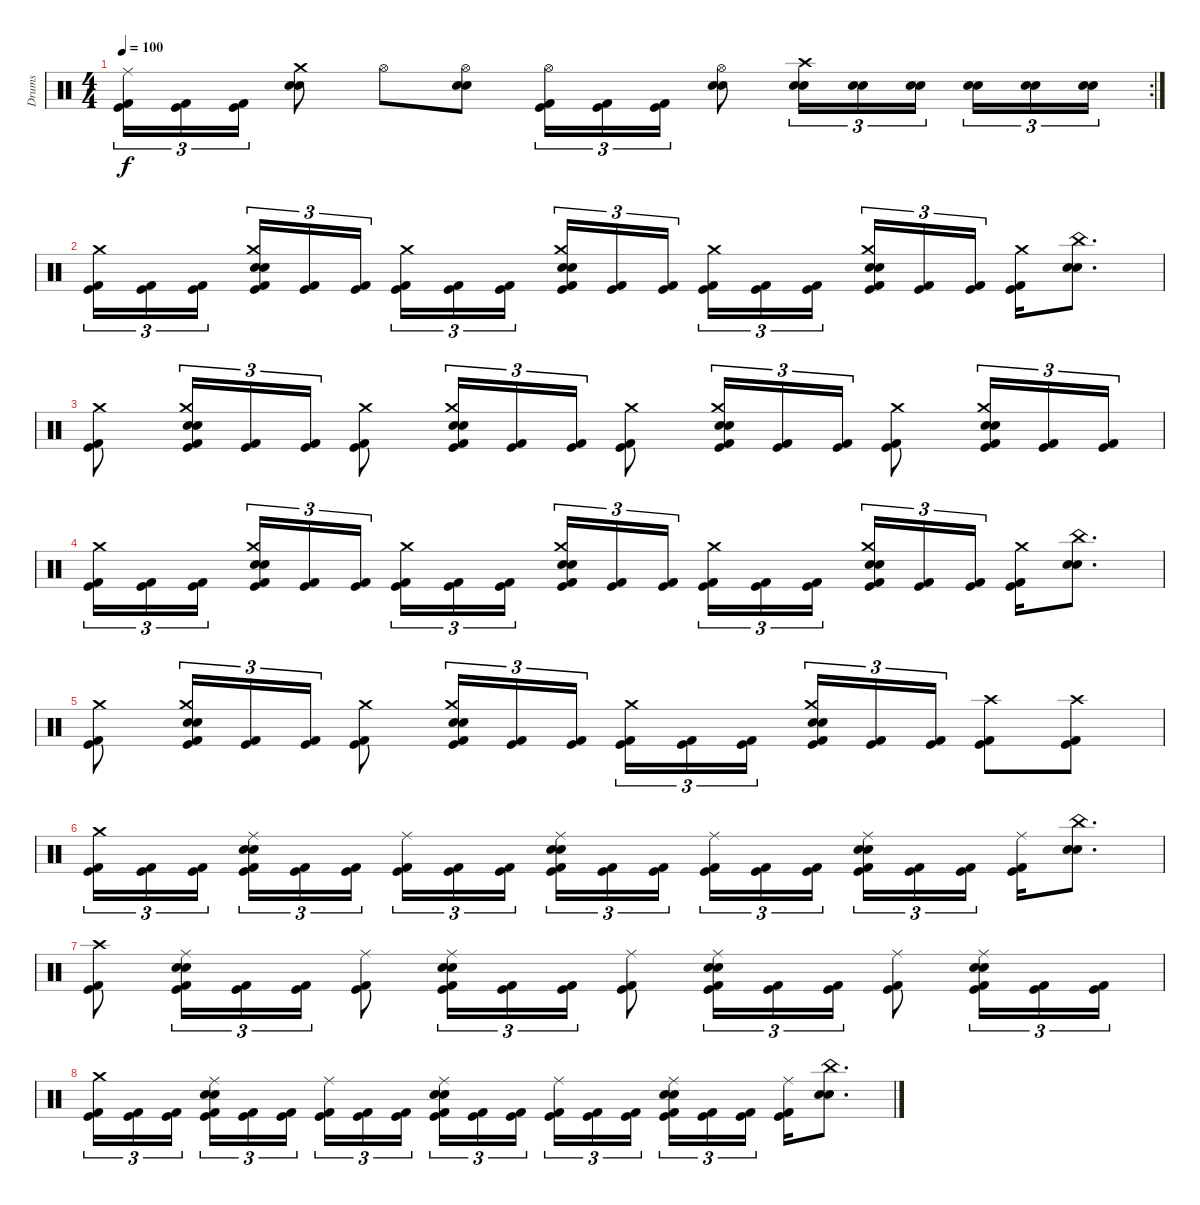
\track ("Drums" "Drums") {instrument percussion}
\staff {score}
\articulation defaults
\rc 2
\ts (4 4)
\tempo 100
\clef neutral
\ks c
("Ride (middle)" "Kick (hit)" "Kick (hit) 2").16{tu (3 2) dy f} ("Kick (hit)" "Kick (hit) 2").16{tu (3 2)} ("Kick (hit)" "Kick (hit) 2").16{tu (3 2)} ("Crash medium (hit)" "Electric Snare (hit)" "Snare (hit) 2").8 "Hi-Hat (open)".8 ("Hi-Hat (open)" "Electric Snare (hit)" "Snare (hit) 2").8 ("Hi-Hat (open)" "Kick (hit)" "Kick (hit) 2").16{tu (3 2)} ("Kick (hit)" "Kick (hit) 2").16{tu (3 2)} ("Kick (hit)" "Kick (hit) 2").16{tu (3 2)} ("Hi-Hat (open)" "Electric Snare (hit)" "Snare (hit) 2").8 ("Crash high (hit)" "Electric Snare (hit)" "Snare (hit) 2").16{tu (3 2)} ("Electric Snare (hit)" "Snare (hit) 2").16{tu (3 2)} ("Electric Snare (hit)" "Snare (hit) 2").16{tu (3 2) beam splitsecondary} ("Electric Snare (hit)" "Snare (hit) 2").16{tu (3 2)} ("Electric Snare (hit)" "Snare (hit) 2").16{tu (3 2)} ("Electric Snare (hit)" "Snare (hit) 2").16{tu (3 2)} |
("Crash medium (hit)" "Kick (hit)" "Kick (hit) 2").16{tu (3 2)} ("Kick (hit)" "Kick (hit) 2").16{tu (3 2)} ("Kick (hit)" "Kick (hit) 2").16{tu (3 2) beam splitsecondary} ("Crash medium (hit)" "Electric Snare (hit)" "Snare (hit) 2" "Kick (hit)" "Kick (hit) 2").16{tu (3 2)} ("Kick (hit)" "Kick (hit) 2").16{tu (3 2)} ("Kick (hit)" "Kick (hit) 2").16{tu (3 2)} ("Crash medium (hit)" "Kick (hit)" "Kick (hit) 2").16{tu (3 2)} ("Kick (hit)" "Kick (hit) 2").16{tu (3 2)} ("Kick (hit)" "Kick (hit) 2").16{tu (3 2) beam splitsecondary} ("Crash medium (hit)" "Snare (hit) 2" "Electric Snare (hit)" "Kick (hit)" "Kick (hit) 2").16{tu (3 2)} ("Kick (hit)" "Kick (hit) 2").16{tu (3 2)} ("Kick (hit)" "Kick (hit) 2").16{tu (3 2)} ("Crash medium (hit)" "Kick (hit)" "Kick (hit) 2").16{tu (3 2)} ("Kick (hit)" "Kick (hit) 2").16{tu (3 2)} ("Kick (hit)" "Kick (hit) 2").16{tu (3 2) beam splitsecondary} ("Crash medium (hit)" "Electric Snare (hit)" "Snare (hit) 2" "Kick (hit)" "Kick (hit) 2").16{tu (3 2)} ("Kick (hit)" "Kick (hit) 2").16{tu (3 2)} ("Kick (hit)" "Kick (hit) 2").16{tu (3 2)} ("Crash medium (hit)" "Kick (hit)" "Kick (hit) 2").16 ("China (hit)" "Snare (hit) 2" "Electric Snare (hit)").8{d} |
("Crash medium (hit)" "Kick (hit)" "Kick (hit) 2").8 ("Crash medium (hit)" "Snare (hit) 2" "Electric Snare (hit)" "Kick (hit) 2" "Kick (hit)").16{tu (3 2)} ("Kick (hit) 2" "Kick (hit)").16{tu (3 2)} ("Kick (hit) 2" "Kick (hit)").16{tu (3 2)} ("Crash medium (hit)" "Kick (hit)" "Kick (hit) 2").8 ("Crash medium (hit)" "Electric Snare (hit)" "Snare (hit) 2" "Kick (hit)" "Kick (hit) 2").16{tu (3 2)} ("Kick (hit)" "Kick (hit) 2").16{tu (3 2)} ("Kick (hit)" "Kick (hit) 2").16{tu (3 2)} ("Crash medium (hit)" "Kick (hit)" "Kick (hit) 2").8 ("Crash medium (hit)" "Electric Snare (hit)" "Snare (hit) 2" "Kick (hit)" "Kick (hit) 2").16{tu (3 2)} ("Kick (hit)" "Kick (hit) 2").16{tu (3 2)} ("Kick (hit)" "Kick (hit) 2").16{tu (3 2)} ("Crash medium (hit)" "Kick (hit)" "Kick (hit) 2").8 ("Crash medium (hit)" "Electric Snare (hit)" "Snare (hit) 2" "Kick (hit)" "Kick (hit) 2").16{tu (3 2)} ("Kick (hit)" "Kick (hit) 2").16{tu (3 2)} ("Kick (hit)" "Kick (hit) 2").16{tu (3 2)} |
("Crash medium (hit)" "Kick (hit)" "Kick (hit) 2").16{tu (3 2)} ("Kick (hit)" "Kick (hit) 2").16{tu (3 2)} ("Kick (hit)" "Kick (hit) 2").16{tu (3 2) beam splitsecondary} ("Crash medium (hit)" "Electric Snare (hit)" "Snare (hit) 2" "Kick (hit)" "Kick (hit) 2").16{tu (3 2)} ("Kick (hit)" "Kick (hit) 2").16{tu (3 2)} ("Kick (hit)" "Kick (hit) 2").16{tu (3 2)} ("Crash medium (hit)" "Kick (hit)" "Kick (hit) 2").16{tu (3 2)} ("Kick (hit)" "Kick (hit) 2").16{tu (3 2)} ("Kick (hit)" "Kick (hit) 2").16{tu (3 2) beam splitsecondary} ("Crash medium (hit)" "Snare (hit) 2" "Electric Snare (hit)" "Kick (hit)" "Kick (hit) 2").16{tu (3 2)} ("Kick (hit)" "Kick (hit) 2").16{tu (3 2)} ("Kick (hit)" "Kick (hit) 2").16{tu (3 2)} ("Crash medium (hit)" "Kick (hit)" "Kick (hit) 2").16{tu (3 2)} ("Kick (hit)" "Kick (hit) 2").16{tu (3 2)} ("Kick (hit)" "Kick (hit) 2").16{tu (3 2) beam splitsecondary} ("Crash medium (hit)" "Electric Snare (hit)" "Snare (hit) 2" "Kick (hit)" "Kick (hit) 2").16{tu (3 2)} ("Kick (hit)" "Kick (hit) 2").16{tu (3 2)} ("Kick (hit)" "Kick (hit) 2").16{tu (3 2)} ("Crash medium (hit)" "Kick (hit)" "Kick (hit) 2").16 ("China (hit)" "Snare (hit) 2" "Electric Snare (hit)").8{d} |
("Crash medium (hit)" "Kick (hit)" "Kick (hit) 2").8 ("Crash medium (hit)" "Snare (hit) 2" "Electric Snare (hit)" "Kick (hit) 2" "Kick (hit)").16{tu (3 2)} ("Kick (hit) 2" "Kick (hit)").16{tu (3 2)} ("Kick (hit) 2" "Kick (hit)").16{tu (3 2)} ("Crash medium (hit)" "Kick (hit)" "Kick (hit) 2").8 ("Crash medium (hit)" "Electric Snare (hit)" "Snare (hit) 2" "Kick (hit)" "Kick (hit) 2").16{tu (3 2)} ("Kick (hit)" "Kick (hit) 2").16{tu (3 2)} ("Kick (hit)" "Kick (hit) 2").16{tu (3 2)} ("Crash medium (hit)" "Kick (hit)" "Kick (hit) 2").16{tu (3 2)} ("Kick (hit)" "Kick (hit) 2").16{tu (3 2)} ("Kick (hit)" "Kick (hit) 2").16{tu (3 2) beam splitsecondary} ("Crash medium (hit)" "Electric Snare (hit)" "Snare (hit) 2" "Kick (hit)" "Kick (hit) 2").16{tu (3 2)} ("Kick (hit)" "Kick (hit) 2").16{tu (3 2)} ("Kick (hit)" "Kick (hit) 2").16{tu (3 2)} ("Crash high (hit)" "Kick (hit)" "Kick (hit) 2").8 ("Crash high (hit)" "Kick (hit)" "Kick (hit) 2").8 |
("Crash medium (hit)" "Kick (hit)" "Kick (hit) 2").16{tu (3 2)} ("Kick (hit)" "Kick (hit) 2").16{tu (3 2)} ("Kick (hit)" "Kick (hit) 2").16{tu (3 2) beam splitsecondary} ("Ride (middle)" "Electric Snare (hit)" "Snare (hit) 2" "Kick (hit)" "Kick (hit) 2").16{tu (3 2)} ("Kick (hit)" "Kick (hit) 2").16{tu (3 2)} ("Kick (hit)" "Kick (hit) 2").16{tu (3 2)} ("Ride (middle)" "Kick (hit)" "Kick (hit) 2").16{tu (3 2)} ("Kick (hit)" "Kick (hit) 2").16{tu (3 2)} ("Kick (hit)" "Kick (hit) 2").16{tu (3 2) beam splitsecondary} ("Ride (middle)" "Snare (hit) 2" "Electric Snare (hit)" "Kick (hit)" "Kick (hit) 2").16{tu (3 2)} ("Kick (hit)" "Kick (hit) 2").16{tu (3 2)} ("Kick (hit)" "Kick (hit) 2").16{tu (3 2)} ("Ride (middle)" "Kick (hit)" "Kick (hit) 2").16{tu (3 2)} ("Kick (hit)" "Kick (hit) 2").16{tu (3 2)} ("Kick (hit)" "Kick (hit) 2").16{tu (3 2) beam splitsecondary} ("Ride (middle)" "Electric Snare (hit)" "Snare (hit) 2" "Kick (hit)" "Kick (hit) 2").16{tu (3 2)} ("Kick (hit)" "Kick (hit) 2").16{tu (3 2)} ("Kick (hit)" "Kick (hit) 2").16{tu (3 2)} ("Ride (middle)" "Kick (hit)" "Kick (hit) 2").16 ("China (hit)" "Snare (hit) 2" "Electric Snare (hit)").8{d} |
("Crash high (hit)" "Kick (hit)" "Kick (hit) 2").8 ("Ride (middle)" "Snare (hit) 2" "Electric Snare (hit)" "Kick (hit) 2" "Kick (hit)").16{tu (3 2)} ("Kick (hit) 2" "Kick (hit)").16{tu (3 2)} ("Kick (hit) 2" "Kick (hit)").16{tu (3 2)} ("Ride (middle)" "Kick (hit)" "Kick (hit) 2").8 ("Ride (middle)" "Electric Snare (hit)" "Snare (hit) 2" "Kick (hit)" "Kick (hit) 2").16{tu (3 2)} ("Kick (hit)" "Kick (hit) 2").16{tu (3 2)} ("Kick (hit)" "Kick (hit) 2").16{tu (3 2)} ("Ride (middle)" "Kick (hit)" "Kick (hit) 2").8 ("Ride (middle)" "Electric Snare (hit)" "Snare (hit) 2" "Kick (hit)" "Kick (hit) 2").16{tu (3 2)} ("Kick (hit)" "Kick (hit) 2").16{tu (3 2)} ("Kick (hit)" "Kick (hit) 2").16{tu (3 2)} ("Ride (middle)" "Kick (hit)" "Kick (hit) 2").8 ("Ride (middle)" "Electric Snare (hit)" "Snare (hit) 2" "Kick (hit)" "Kick (hit) 2").16{tu (3 2)} ("Kick (hit)" "Kick (hit) 2").16{tu (3 2)} ("Kick (hit)" "Kick (hit) 2").16{tu (3 2)} |
("Crash medium (hit)" "Kick (hit)" "Kick (hit) 2").16{tu (3 2)} ("Kick (hit)" "Kick (hit) 2").16{tu (3 2)} ("Kick (hit)" "Kick (hit) 2").16{tu (3 2) beam splitsecondary} ("Ride (middle)" "Electric Snare (hit)" "Snare (hit) 2" "Kick (hit)" "Kick (hit) 2").16{tu (3 2)} ("Kick (hit)" "Kick (hit) 2").16{tu (3 2)} ("Kick (hit)" "Kick (hit) 2").16{tu (3 2)} ("Ride (middle)" "Kick (hit)" "Kick (hit) 2").16{tu (3 2)} ("Kick (hit)" "Kick (hit) 2").16{tu (3 2)} ("Kick (hit)" "Kick (hit) 2").16{tu (3 2) beam splitsecondary} ("Ride (middle)" "Snare (hit) 2" "Electric Snare (hit)" "Kick (hit)" "Kick (hit) 2").16{tu (3 2)} ("Kick (hit)" "Kick (hit) 2").16{tu (3 2)} ("Kick (hit)" "Kick (hit) 2").16{tu (3 2)} ("Ride (middle)" "Kick (hit)" "Kick (hit) 2").16{tu (3 2)} ("Kick (hit)" "Kick (hit) 2").16{tu (3 2)} ("Kick (hit)" "Kick (hit) 2").16{tu (3 2) beam splitsecondary} ("Ride (middle)" "Electric Snare (hit)" "Snare (hit) 2" "Kick (hit)" "Kick (hit) 2").16{tu (3 2)} ("Kick (hit)" "Kick (hit) 2").16{tu (3 2)} ("Kick (hit)" "Kick (hit) 2").16{tu (3 2)} ("Ride (middle)" "Kick (hit)" "Kick (hit) 2").16 ("China (hit)" "Snare (hit) 2" "Electric Snare (hit)").8{d}
